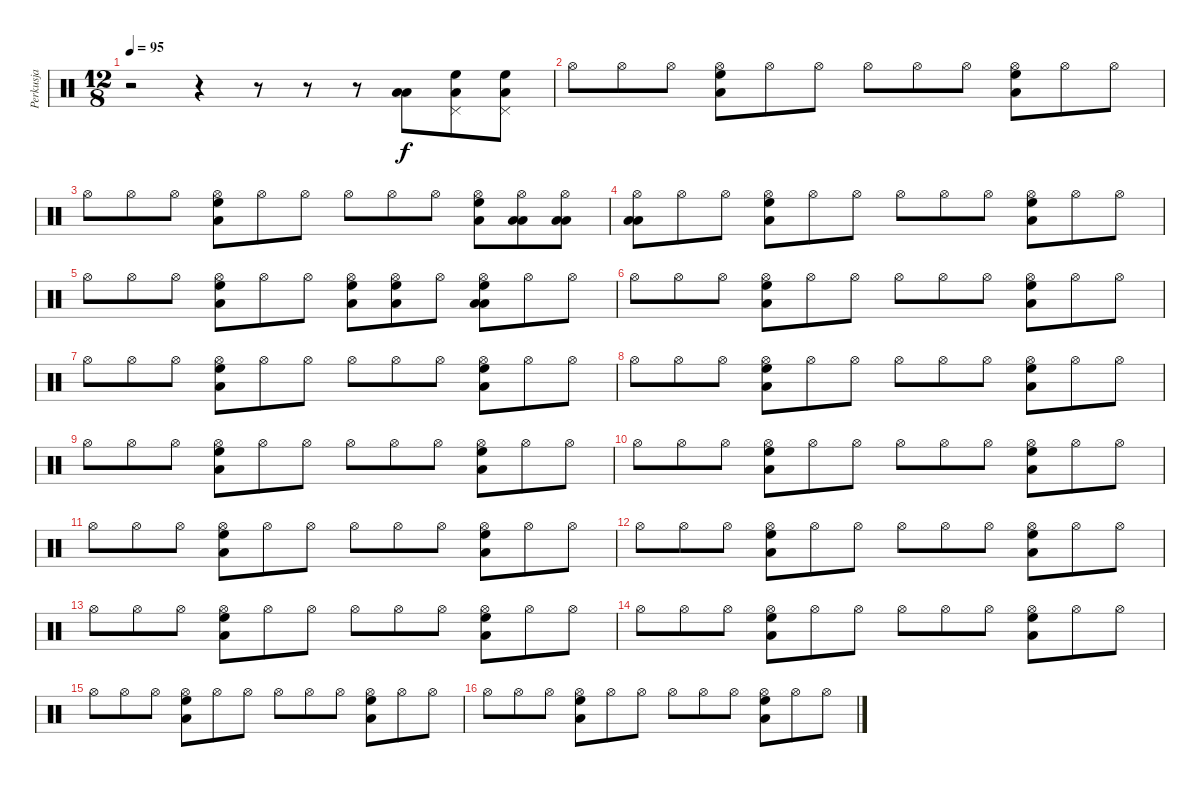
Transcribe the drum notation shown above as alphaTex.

\track ("Perkusja" "Perkusja") {instrument percussion}
\staff {score}
\articulation defaults
\ts (12 8)
\tempo 95
\clef neutral
\ks c
r.2{dy f} r.4 r.8 r.8 r.8 ("Low Tom (hit)" "Low Tom (hit)").8 ("Low Tom (hit)" "Pedal Hi-Hat (hit)" "High Floor Tom (hit)").8 ("Low Tom (hit)" "Pedal Hi-Hat (hit)" "High Floor Tom (hit)").8 |
"Hi-Hat (open)".8 "Hi-Hat (open)".8 "Hi-Hat (open)".8 ("Hi-Hat (open)" "Low Tom (hit)" "High Floor Tom (hit)").8 "Hi-Hat (open)".8 "Hi-Hat (open)".8 "Hi-Hat (open)".8 "Hi-Hat (open)".8 "Hi-Hat (open)".8 ("Hi-Hat (open)" "Low Tom (hit)" "High Floor Tom (hit)").8 "Hi-Hat (open)".8 "Hi-Hat (open)".8 |
"Hi-Hat (open)".8 "Hi-Hat (open)".8 "Hi-Hat (open)".8 ("Hi-Hat (open)" "Low Tom (hit)" "High Floor Tom (hit)").8 "Hi-Hat (open)".8 "Hi-Hat (open)".8 "Hi-Hat (open)".8 "Hi-Hat (open)".8 "Hi-Hat (open)".8 ("Hi-Hat (open)" "Low Tom (hit)" "High Floor Tom (hit)").8 ("Hi-Hat (open)" "Low Tom (hit)" "Low Tom (hit)").8 ("Hi-Hat (open)" "Low Tom (hit)" "Low Tom (hit)").8 |
("Hi-Hat (open)" "Low Tom (hit)" "Low Tom (hit)").8 "Hi-Hat (open)".8 "Hi-Hat (open)".8 ("Hi-Hat (open)" "Low Tom (hit)" "High Floor Tom (hit)").8 "Hi-Hat (open)".8 "Hi-Hat (open)".8 "Hi-Hat (open)".8 "Hi-Hat (open)".8 "Hi-Hat (open)".8 ("Hi-Hat (open)" "Low Tom (hit)" "High Floor Tom (hit)").8 "Hi-Hat (open)".8 "Hi-Hat (open)".8 |
"Hi-Hat (open)".8 "Hi-Hat (open)".8 "Hi-Hat (open)".8 ("Hi-Hat (open)" "Low Tom (hit)" "High Floor Tom (hit)").8 "Hi-Hat (open)".8 "Hi-Hat (open)".8 ("Hi-Hat (open)" "Low Tom (hit)" "High Floor Tom (hit)").8 ("Hi-Hat (open)" "Low Tom (hit)" "High Floor Tom (hit)").8 "Hi-Hat (open)".8 ("Hi-Hat (open)" "Low Tom (hit)" "Low Tom (hit)" "High Floor Tom (hit)").8 "Hi-Hat (open)".8 "Hi-Hat (open)".8 |
"Hi-Hat (open)".8 "Hi-Hat (open)".8 "Hi-Hat (open)".8 ("Hi-Hat (open)" "Low Tom (hit)" "High Floor Tom (hit)").8 "Hi-Hat (open)".8 "Hi-Hat (open)".8 "Hi-Hat (open)".8 "Hi-Hat (open)".8 "Hi-Hat (open)".8 ("Hi-Hat (open)" "Low Tom (hit)" "High Floor Tom (hit)").8 "Hi-Hat (open)".8 "Hi-Hat (open)".8 |
"Hi-Hat (open)".8 "Hi-Hat (open)".8 "Hi-Hat (open)".8 ("Hi-Hat (open)" "Low Tom (hit)" "High Floor Tom (hit)").8 "Hi-Hat (open)".8 "Hi-Hat (open)".8 "Hi-Hat (open)".8 "Hi-Hat (open)".8 "Hi-Hat (open)".8 ("Hi-Hat (open)" "Low Tom (hit)" "High Floor Tom (hit)").8 "Hi-Hat (open)".8 "Hi-Hat (open)".8 |
"Hi-Hat (open)".8 "Hi-Hat (open)".8 "Hi-Hat (open)".8 ("Hi-Hat (open)" "Low Tom (hit)" "High Floor Tom (hit)").8 "Hi-Hat (open)".8 "Hi-Hat (open)".8 "Hi-Hat (open)".8 "Hi-Hat (open)".8 "Hi-Hat (open)".8 ("Hi-Hat (open)" "Low Tom (hit)" "High Floor Tom (hit)").8 "Hi-Hat (open)".8 "Hi-Hat (open)".8 |
"Hi-Hat (open)".8 "Hi-Hat (open)".8 "Hi-Hat (open)".8 ("Hi-Hat (open)" "Low Tom (hit)" "High Floor Tom (hit)").8 "Hi-Hat (open)".8 "Hi-Hat (open)".8 "Hi-Hat (open)".8 "Hi-Hat (open)".8 "Hi-Hat (open)".8 ("Hi-Hat (open)" "Low Tom (hit)" "High Floor Tom (hit)").8 "Hi-Hat (open)".8 "Hi-Hat (open)".8 |
"Hi-Hat (open)".8 "Hi-Hat (open)".8 "Hi-Hat (open)".8 ("Hi-Hat (open)" "Low Tom (hit)" "High Floor Tom (hit)").8 "Hi-Hat (open)".8 "Hi-Hat (open)".8 "Hi-Hat (open)".8 "Hi-Hat (open)".8 "Hi-Hat (open)".8 ("Hi-Hat (open)" "Low Tom (hit)" "High Floor Tom (hit)").8 "Hi-Hat (open)".8 "Hi-Hat (open)".8 |
"Hi-Hat (open)".8 "Hi-Hat (open)".8 "Hi-Hat (open)".8 ("Hi-Hat (open)" "Low Tom (hit)" "High Floor Tom (hit)").8 "Hi-Hat (open)".8 "Hi-Hat (open)".8 "Hi-Hat (open)".8 "Hi-Hat (open)".8 "Hi-Hat (open)".8 ("Hi-Hat (open)" "Low Tom (hit)" "High Floor Tom (hit)").8 "Hi-Hat (open)".8 "Hi-Hat (open)".8 |
"Hi-Hat (open)".8 "Hi-Hat (open)".8 "Hi-Hat (open)".8 ("Hi-Hat (open)" "Low Tom (hit)" "High Floor Tom (hit)").8 "Hi-Hat (open)".8 "Hi-Hat (open)".8 "Hi-Hat (open)".8 "Hi-Hat (open)".8 "Hi-Hat (open)".8 ("Hi-Hat (open)" "Low Tom (hit)" "High Floor Tom (hit)").8 "Hi-Hat (open)".8 "Hi-Hat (open)".8 |
"Hi-Hat (open)".8 "Hi-Hat (open)".8 "Hi-Hat (open)".8 ("Hi-Hat (open)" "Low Tom (hit)" "High Floor Tom (hit)").8 "Hi-Hat (open)".8 "Hi-Hat (open)".8 "Hi-Hat (open)".8 "Hi-Hat (open)".8 "Hi-Hat (open)".8 ("Hi-Hat (open)" "Low Tom (hit)" "High Floor Tom (hit)").8 "Hi-Hat (open)".8 "Hi-Hat (open)".8 |
"Hi-Hat (open)".8 "Hi-Hat (open)".8 "Hi-Hat (open)".8 ("Hi-Hat (open)" "Low Tom (hit)" "High Floor Tom (hit)").8 "Hi-Hat (open)".8 "Hi-Hat (open)".8 "Hi-Hat (open)".8 "Hi-Hat (open)".8 "Hi-Hat (open)".8 ("Hi-Hat (open)" "Low Tom (hit)" "High Floor Tom (hit)").8 "Hi-Hat (open)".8 "Hi-Hat (open)".8 |
"Hi-Hat (open)".8 "Hi-Hat (open)".8 "Hi-Hat (open)".8 ("Hi-Hat (open)" "Low Tom (hit)" "High Floor Tom (hit)").8 "Hi-Hat (open)".8 "Hi-Hat (open)".8 "Hi-Hat (open)".8 "Hi-Hat (open)".8 "Hi-Hat (open)".8 ("Hi-Hat (open)" "Low Tom (hit)" "High Floor Tom (hit)").8 "Hi-Hat (open)".8 "Hi-Hat (open)".8 |
"Hi-Hat (open)".8 "Hi-Hat (open)".8 "Hi-Hat (open)".8 ("Hi-Hat (open)" "Low Tom (hit)" "High Floor Tom (hit)").8 "Hi-Hat (open)".8 "Hi-Hat (open)".8 "Hi-Hat (open)".8 "Hi-Hat (open)".8 "Hi-Hat (open)".8 ("Hi-Hat (open)" "Low Tom (hit)" "High Floor Tom (hit)").8 "Hi-Hat (open)".8 "Hi-Hat (open)".8
